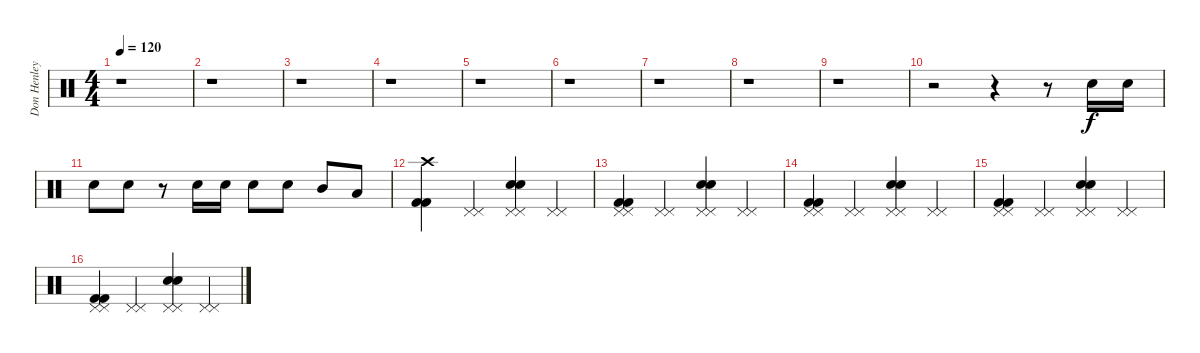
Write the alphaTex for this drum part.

\track ("Don Henley (Drums)" "Don Henley") {instrument percussion}
\staff {score}
\articulation defaults
\ts (4 4)
\tempo 120
\clef neutral
\ks c
r.1{dy f} |
r.1 |
r.1 |
r.1 |
r.1 |
r.1 |
r.1 |
r.1 |
r.1 |
r.2 r.4 r.8 "Electric Snare (hit)".16 "Electric Snare (hit)".16 |
"Electric Snare (hit)".8 "Electric Snare (hit)".8 r.8 "Electric Snare (hit)".16 "Electric Snare (hit)".16 "Electric Snare (hit)".8 "Electric Snare (hit)".8 "Mid Tom (hit)".8 "Low Tom (hit)".8 |
("Crash high (hit)" "Kick (hit) 2" "Kick (hit) 2").4 ("Pedal Hi-Hat (hit)" "Pedal Hi-Hat (hit)").4 ("Pedal Hi-Hat (hit)" "Pedal Hi-Hat (hit)" "Electric Snare (hit)" "Electric Snare (hit)").4 ("Pedal Hi-Hat (hit)" "Pedal Hi-Hat (hit)").4 |
("Pedal Hi-Hat (hit)" "Pedal Hi-Hat (hit)" "Kick (hit) 2" "Kick (hit) 2").4 ("Pedal Hi-Hat (hit)" "Pedal Hi-Hat (hit)").4 ("Pedal Hi-Hat (hit)" "Pedal Hi-Hat (hit)" "Electric Snare (hit)" "Electric Snare (hit)").4 ("Pedal Hi-Hat (hit)" "Pedal Hi-Hat (hit)").4 |
("Pedal Hi-Hat (hit)" "Pedal Hi-Hat (hit)" "Kick (hit) 2" "Kick (hit) 2").4 ("Pedal Hi-Hat (hit)" "Pedal Hi-Hat (hit)").4 ("Pedal Hi-Hat (hit)" "Pedal Hi-Hat (hit)" "Electric Snare (hit)" "Electric Snare (hit)").4 ("Pedal Hi-Hat (hit)" "Pedal Hi-Hat (hit)").4 |
("Pedal Hi-Hat (hit)" "Pedal Hi-Hat (hit)" "Kick (hit) 2" "Kick (hit) 2").4 ("Pedal Hi-Hat (hit)" "Pedal Hi-Hat (hit)").4 ("Pedal Hi-Hat (hit)" "Pedal Hi-Hat (hit)" "Electric Snare (hit)" "Electric Snare (hit)").4 ("Pedal Hi-Hat (hit)" "Pedal Hi-Hat (hit)").4 |
("Pedal Hi-Hat (hit)" "Pedal Hi-Hat (hit)" "Kick (hit) 2" "Kick (hit) 2").4 ("Pedal Hi-Hat (hit)" "Pedal Hi-Hat (hit)").4 ("Pedal Hi-Hat (hit)" "Pedal Hi-Hat (hit)" "Electric Snare (hit)" "Electric Snare (hit)").4 ("Pedal Hi-Hat (hit)" "Pedal Hi-Hat (hit)").4
